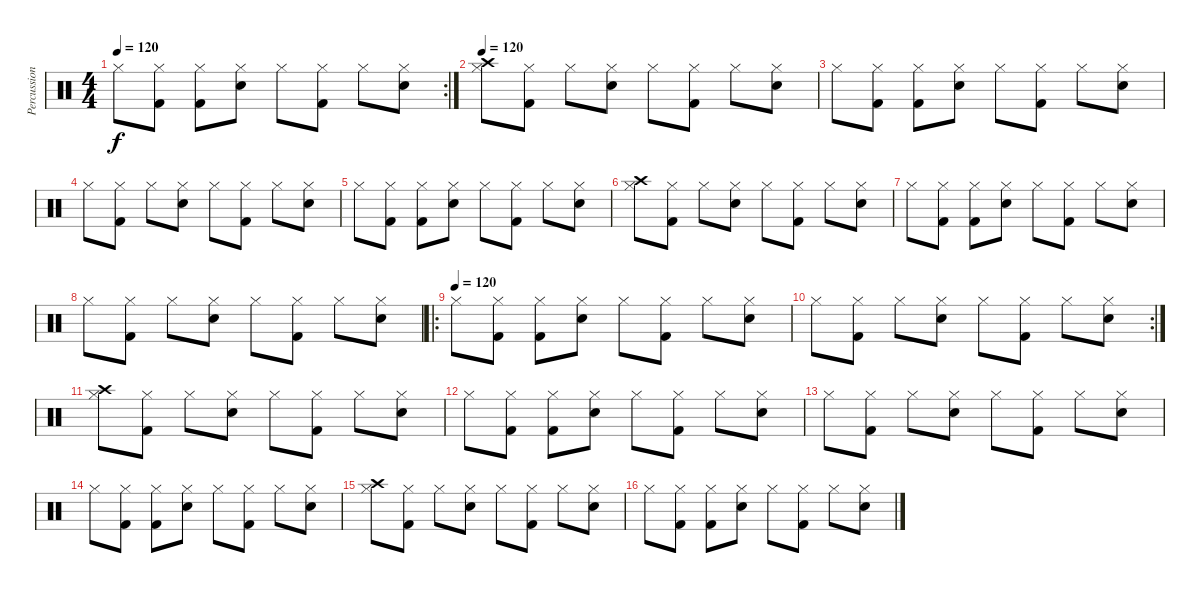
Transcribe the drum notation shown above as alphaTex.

\track ("Percussion" "Percussion") {instrument percussion}
\staff {score}
\articulation defaults
\rc 2
\ts (4 4)
\tempo 120
\clef neutral
\ks c "Hi-Hat (closed)".8{dy f}
("Kick (hit) 2" "Hi-Hat (closed)").8 ("Hi-Hat (closed)" "Kick (hit) 2").8 ("Electric Snare (hit)" "Hi-Hat (closed)").8 "Hi-Hat (closed)".8 ("Kick (hit) 2" "Hi-Hat (closed)").8 "Hi-Hat (closed)".8 ("Electric Snare (hit)" "Hi-Hat (closed)").8 |
\tempo 120
("Hi-Hat (closed)" "Crash high (hit)").8 ("Kick (hit) 2" "Hi-Hat (closed)").8 "Hi-Hat (closed)".8 ("Electric Snare (hit)" "Hi-Hat (closed)").8 "Hi-Hat (closed)".8 ("Kick (hit) 2" "Hi-Hat (closed)").8 "Hi-Hat (closed)".8 ("Electric Snare (hit)" "Hi-Hat (closed)").8 |
"Hi-Hat (closed)".8 ("Kick (hit) 2" "Hi-Hat (closed)").8 ("Hi-Hat (closed)" "Kick (hit) 2").8 ("Electric Snare (hit)" "Hi-Hat (closed)").8 "Hi-Hat (closed)".8 ("Kick (hit) 2" "Hi-Hat (closed)").8 "Hi-Hat (closed)".8 ("Electric Snare (hit)" "Hi-Hat (closed)").8 |
"Hi-Hat (closed)".8 ("Kick (hit) 2" "Hi-Hat (closed)").8 "Hi-Hat (closed)".8 ("Electric Snare (hit)" "Hi-Hat (closed)").8 "Hi-Hat (closed)".8 ("Kick (hit) 2" "Hi-Hat (closed)").8 "Hi-Hat (closed)".8 ("Electric Snare (hit)" "Hi-Hat (closed)").8 |
"Hi-Hat (closed)".8 ("Kick (hit) 2" "Hi-Hat (closed)").8 ("Hi-Hat (closed)" "Kick (hit) 2").8 ("Electric Snare (hit)" "Hi-Hat (closed)").8 "Hi-Hat (closed)".8 ("Kick (hit) 2" "Hi-Hat (closed)").8 "Hi-Hat (closed)".8 ("Electric Snare (hit)" "Hi-Hat (closed)").8 |
("Hi-Hat (closed)" "Crash high (hit)").8 ("Kick (hit) 2" "Hi-Hat (closed)").8 "Hi-Hat (closed)".8 ("Electric Snare (hit)" "Hi-Hat (closed)").8 "Hi-Hat (closed)".8 ("Kick (hit) 2" "Hi-Hat (closed)").8 "Hi-Hat (closed)".8 ("Electric Snare (hit)" "Hi-Hat (closed)").8 |
"Hi-Hat (closed)".8 ("Kick (hit) 2" "Hi-Hat (closed)").8 ("Hi-Hat (closed)" "Kick (hit) 2").8 ("Electric Snare (hit)" "Hi-Hat (closed)").8 "Hi-Hat (closed)".8 ("Kick (hit) 2" "Hi-Hat (closed)").8 "Hi-Hat (closed)".8 ("Electric Snare (hit)" "Hi-Hat (closed)").8 |
"Hi-Hat (closed)".8 ("Kick (hit) 2" "Hi-Hat (closed)").8 "Hi-Hat (closed)".8 ("Electric Snare (hit)" "Hi-Hat (closed)").8 "Hi-Hat (closed)".8 ("Kick (hit) 2" "Hi-Hat (closed)").8 "Hi-Hat (closed)".8 ("Electric Snare (hit)" "Hi-Hat (closed)").8 |
\ro
\tempo (120)
"Hi-Hat (closed)".8 ("Kick (hit) 2" "Hi-Hat (closed)").8 ("Hi-Hat (closed)" "Kick (hit) 2").8 ("Electric Snare (hit)" "Hi-Hat (closed)").8 "Hi-Hat (closed)".8 ("Kick (hit) 2" "Hi-Hat (closed)").8 "Hi-Hat (closed)".8 ("Electric Snare (hit)" "Hi-Hat (closed)").8 |
\rc 2 "Hi-Hat (closed)".8
("Kick (hit) 2" "Hi-Hat (closed)").8 "Hi-Hat (closed)".8 ("Electric Snare (hit)" "Hi-Hat (closed)").8 "Hi-Hat (closed)".8 ("Kick (hit) 2" "Hi-Hat (closed)").8 "Hi-Hat (closed)".8 ("Electric Snare (hit)" "Hi-Hat (closed)").8 |
("Hi-Hat (closed)" "Crash high (hit)").8 ("Kick (hit) 2" "Hi-Hat (closed)").8 "Hi-Hat (closed)".8 ("Electric Snare (hit)" "Hi-Hat (closed)").8 "Hi-Hat (closed)".8 ("Kick (hit) 2" "Hi-Hat (closed)").8 "Hi-Hat (closed)".8 ("Electric Snare (hit)" "Hi-Hat (closed)").8 |
"Hi-Hat (closed)".8 ("Kick (hit) 2" "Hi-Hat (closed)").8 ("Hi-Hat (closed)" "Kick (hit) 2").8 ("Electric Snare (hit)" "Hi-Hat (closed)").8 "Hi-Hat (closed)".8 ("Kick (hit) 2" "Hi-Hat (closed)").8 "Hi-Hat (closed)".8 ("Electric Snare (hit)" "Hi-Hat (closed)").8 |
"Hi-Hat (closed)".8 ("Kick (hit) 2" "Hi-Hat (closed)").8 "Hi-Hat (closed)".8 ("Electric Snare (hit)" "Hi-Hat (closed)").8 "Hi-Hat (closed)".8 ("Kick (hit) 2" "Hi-Hat (closed)").8 "Hi-Hat (closed)".8 ("Electric Snare (hit)" "Hi-Hat (closed)").8 |
"Hi-Hat (closed)".8 ("Kick (hit) 2" "Hi-Hat (closed)").8 ("Hi-Hat (closed)" "Kick (hit) 2").8 ("Electric Snare (hit)" "Hi-Hat (closed)").8 "Hi-Hat (closed)".8 ("Kick (hit) 2" "Hi-Hat (closed)").8 "Hi-Hat (closed)".8 ("Electric Snare (hit)" "Hi-Hat (closed)").8 |
("Hi-Hat (closed)" "Crash high (hit)").8 ("Kick (hit) 2" "Hi-Hat (closed)").8 "Hi-Hat (closed)".8 ("Electric Snare (hit)" "Hi-Hat (closed)").8 "Hi-Hat (closed)".8 ("Kick (hit) 2" "Hi-Hat (closed)").8 "Hi-Hat (closed)".8 ("Electric Snare (hit)" "Hi-Hat (closed)").8 |
"Hi-Hat (closed)".8 ("Kick (hit) 2" "Hi-Hat (closed)").8 ("Hi-Hat (closed)" "Kick (hit) 2").8 ("Electric Snare (hit)" "Hi-Hat (closed)").8 "Hi-Hat (closed)".8 ("Kick (hit) 2" "Hi-Hat (closed)").8 "Hi-Hat (closed)".8 ("Electric Snare (hit)" "Hi-Hat (closed)").8
